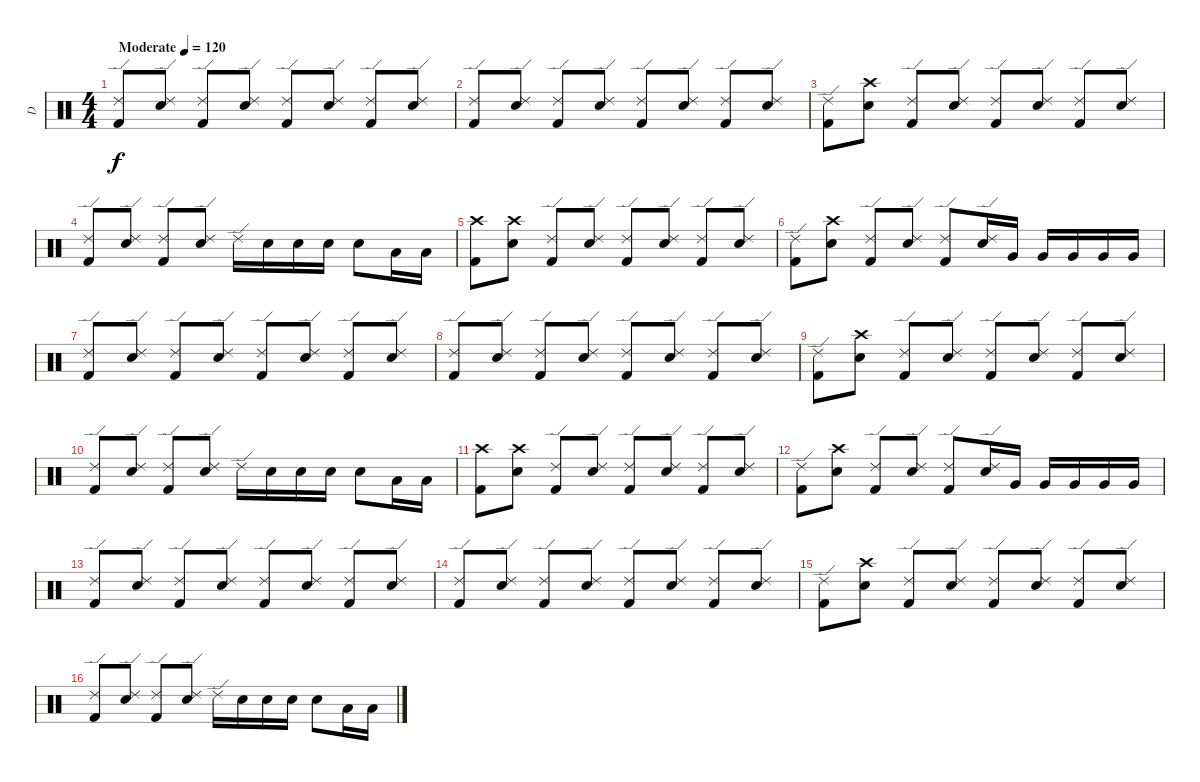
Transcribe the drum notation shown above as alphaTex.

\track ("D" "D") {instrument percussion}
\staff {score}
\articulation defaults
\ts (4 4)
\tempo (120 "Moderate")
\clef neutral
\ks c
("Ride (edge) 2" "Kick (hit) 2").8{dy f} ("Ride (edge) 2" "Electric Snare (hit)").8 ("Ride (edge) 2" "Kick (hit) 2").8 ("Ride (edge) 2" "Electric Snare (hit)").8 ("Ride (edge) 2" "Kick (hit) 2").8 ("Ride (edge) 2" "Electric Snare (hit)").8 ("Ride (edge) 2" "Kick (hit) 2").8 ("Ride (edge) 2" "Electric Snare (hit)").8 |
("Ride (edge) 2" "Kick (hit) 2").8 ("Ride (edge) 2" "Electric Snare (hit)").8 ("Ride (edge) 2" "Kick (hit) 2").8 ("Ride (edge) 2" "Electric Snare (hit)").8 ("Ride (edge) 2" "Kick (hit) 2").8 ("Ride (edge) 2" "Electric Snare (hit)").8 ("Ride (edge) 2" "Kick (hit) 2").8 ("Ride (edge) 2" "Electric Snare (hit)").8 |
("Ride (edge) 2" "Kick (hit) 2").8 ("Crash high (hit)" "Electric Snare (hit)").8 ("Ride (edge) 2" "Kick (hit) 2").8 ("Ride (edge) 2" "Electric Snare (hit)").8 ("Ride (edge) 2" "Kick (hit) 2").8 ("Ride (edge) 2" "Electric Snare (hit)").8 ("Ride (edge) 2" "Kick (hit) 2").8 ("Ride (edge) 2" "Electric Snare (hit)").8 |
("Ride (edge) 2" "Kick (hit) 2").8 ("Ride (edge) 2" "Electric Snare (hit)").8 ("Ride (edge) 2" "Kick (hit) 2").8 ("Ride (edge) 2" "Electric Snare (hit)").8 "Ride (edge) 2".16 "Electric Snare (hit)".16 "Electric Snare (hit)".16 "Electric Snare (hit)".16 "Electric Snare (hit)".8 "Low Tom (hit)".16 "Low Tom (hit)".16 |
("Crash high (hit)" "Kick (hit) 2").8 ("Crash high (hit)" "Electric Snare (hit)").8 ("Ride (edge) 2" "Kick (hit) 2").8 ("Ride (edge) 2" "Electric Snare (hit)").8 ("Ride (edge) 2" "Kick (hit) 2").8 ("Ride (edge) 2" "Electric Snare (hit)").8 ("Ride (edge) 2" "Kick (hit) 2").8 ("Ride (edge) 2" "Electric Snare (hit)").8 |
("Ride (edge) 2" "Kick (hit) 2").8 ("Crash high (hit)" "Electric Snare (hit)").8 ("Ride (edge) 2" "Kick (hit) 2").8 ("Ride (edge) 2" "Electric Snare (hit)").8 ("Ride (edge) 2" "Kick (hit) 2").8 ("Ride (edge) 2" "Electric Snare (hit)").16 "Very Low Tom (hit)".16 "Very Low Tom (hit)".16 "Very Low Tom (hit)".16 "Very Low Tom (hit)".16 "Very Low Tom (hit)".16 |
("Ride (edge) 2" "Kick (hit) 2").8 ("Ride (edge) 2" "Electric Snare (hit)").8 ("Ride (edge) 2" "Kick (hit) 2").8 ("Ride (edge) 2" "Electric Snare (hit)").8 ("Ride (edge) 2" "Kick (hit) 2").8 ("Ride (edge) 2" "Electric Snare (hit)").8 ("Ride (edge) 2" "Kick (hit) 2").8 ("Ride (edge) 2" "Electric Snare (hit)").8 |
("Ride (edge) 2" "Kick (hit) 2").8 ("Ride (edge) 2" "Electric Snare (hit)").8 ("Ride (edge) 2" "Kick (hit) 2").8 ("Ride (edge) 2" "Electric Snare (hit)").8 ("Ride (edge) 2" "Kick (hit) 2").8 ("Ride (edge) 2" "Electric Snare (hit)").8 ("Ride (edge) 2" "Kick (hit) 2").8 ("Ride (edge) 2" "Electric Snare (hit)").8 |
("Ride (edge) 2" "Kick (hit) 2").8 ("Crash high (hit)" "Electric Snare (hit)").8 ("Ride (edge) 2" "Kick (hit) 2").8 ("Ride (edge) 2" "Electric Snare (hit)").8 ("Ride (edge) 2" "Kick (hit) 2").8 ("Ride (edge) 2" "Electric Snare (hit)").8 ("Ride (edge) 2" "Kick (hit) 2").8 ("Ride (edge) 2" "Electric Snare (hit)").8 |
("Ride (edge) 2" "Kick (hit) 2").8 ("Ride (edge) 2" "Electric Snare (hit)").8 ("Ride (edge) 2" "Kick (hit) 2").8 ("Ride (edge) 2" "Electric Snare (hit)").8 "Ride (edge) 2".16 "Electric Snare (hit)".16 "Electric Snare (hit)".16 "Electric Snare (hit)".16 "Electric Snare (hit)".8 "Low Tom (hit)".16 "Low Tom (hit)".16 |
("Crash high (hit)" "Kick (hit) 2").8 ("Crash high (hit)" "Electric Snare (hit)").8 ("Ride (edge) 2" "Kick (hit) 2").8 ("Ride (edge) 2" "Electric Snare (hit)").8 ("Ride (edge) 2" "Kick (hit) 2").8 ("Ride (edge) 2" "Electric Snare (hit)").8 ("Ride (edge) 2" "Kick (hit) 2").8 ("Ride (edge) 2" "Electric Snare (hit)").8 |
("Ride (edge) 2" "Kick (hit) 2").8 ("Crash high (hit)" "Electric Snare (hit)").8 ("Ride (edge) 2" "Kick (hit) 2").8 ("Ride (edge) 2" "Electric Snare (hit)").8 ("Ride (edge) 2" "Kick (hit) 2").8 ("Ride (edge) 2" "Electric Snare (hit)").16 "Very Low Tom (hit)".16 "Very Low Tom (hit)".16 "Very Low Tom (hit)".16 "Very Low Tom (hit)".16 "Very Low Tom (hit)".16 |
("Ride (edge) 2" "Kick (hit) 2").8 ("Ride (edge) 2" "Electric Snare (hit)").8 ("Ride (edge) 2" "Kick (hit) 2").8 ("Ride (edge) 2" "Electric Snare (hit)").8 ("Ride (edge) 2" "Kick (hit) 2").8 ("Ride (edge) 2" "Electric Snare (hit)").8 ("Ride (edge) 2" "Kick (hit) 2").8 ("Ride (edge) 2" "Electric Snare (hit)").8 |
("Ride (edge) 2" "Kick (hit) 2").8 ("Ride (edge) 2" "Electric Snare (hit)").8 ("Ride (edge) 2" "Kick (hit) 2").8 ("Ride (edge) 2" "Electric Snare (hit)").8 ("Ride (edge) 2" "Kick (hit) 2").8 ("Ride (edge) 2" "Electric Snare (hit)").8 ("Ride (edge) 2" "Kick (hit) 2").8 ("Ride (edge) 2" "Electric Snare (hit)").8 |
("Ride (edge) 2" "Kick (hit) 2").8 ("Crash high (hit)" "Electric Snare (hit)").8 ("Ride (edge) 2" "Kick (hit) 2").8 ("Ride (edge) 2" "Electric Snare (hit)").8 ("Ride (edge) 2" "Kick (hit) 2").8 ("Ride (edge) 2" "Electric Snare (hit)").8 ("Ride (edge) 2" "Kick (hit) 2").8 ("Ride (edge) 2" "Electric Snare (hit)").8 |
("Ride (edge) 2" "Kick (hit) 2").8 ("Ride (edge) 2" "Electric Snare (hit)").8 ("Ride (edge) 2" "Kick (hit) 2").8 ("Ride (edge) 2" "Electric Snare (hit)").8 "Ride (edge) 2".16 "Electric Snare (hit)".16 "Electric Snare (hit)".16 "Electric Snare (hit)".16 "Electric Snare (hit)".8 "Low Tom (hit)".16 "Low Tom (hit)".16
